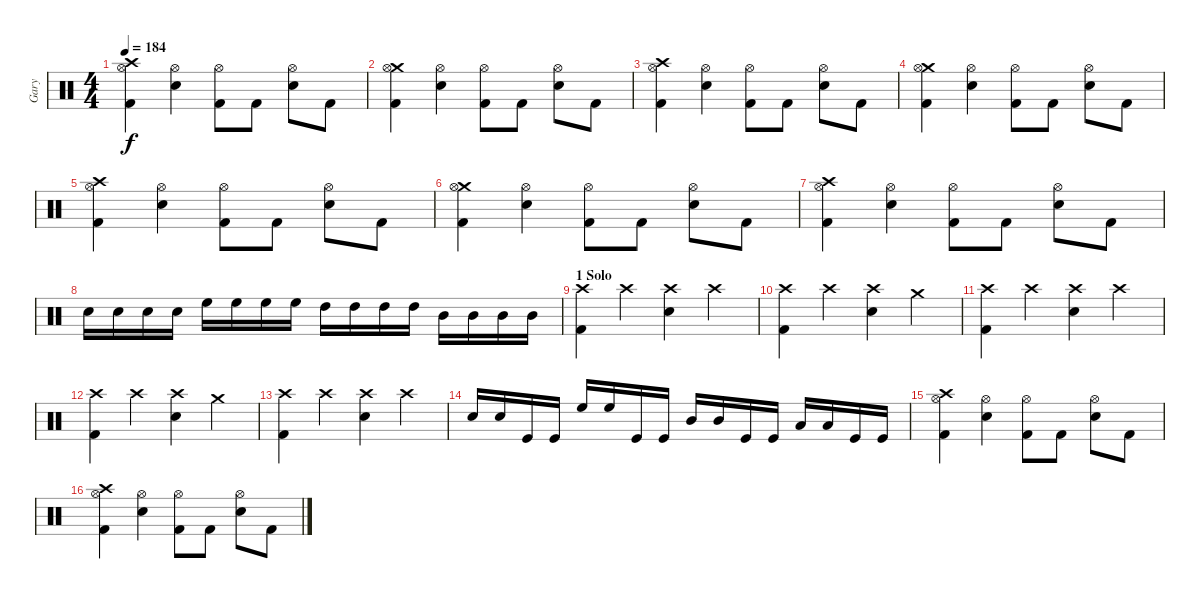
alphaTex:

\track ("Gary" "Gary") {instrument percussion}
\staff {score}
\articulation defaults
\ts (4 4)
\tempo 184
\clef neutral
\ks c
("Crash high (hit)" "Hi-Hat (open)" "Kick (hit) 2").4{dy f} ("Hi-Hat (open)" "Snare (hit) 2").4 ("Hi-Hat (open)" "Kick (hit) 2").8 "Kick (hit) 2".8 ("Hi-Hat (open)" "Snare (hit) 2").8 "Kick (hit) 2".8 |
("Crash medium (hit)" "Hi-Hat (open)" "Kick (hit) 2").4 ("Hi-Hat (open)" "Snare (hit) 2").4 ("Hi-Hat (open)" "Kick (hit) 2").8 "Kick (hit) 2".8 ("Hi-Hat (open)" "Snare (hit) 2").8 "Kick (hit) 2".8 |
("Crash high (hit)" "Hi-Hat (open)" "Kick (hit) 2").4 ("Hi-Hat (open)" "Snare (hit) 2").4 ("Hi-Hat (open)" "Kick (hit) 2").8 "Kick (hit) 2".8 ("Hi-Hat (open)" "Snare (hit) 2").8 "Kick (hit) 2".8 |
("Crash medium (hit)" "Hi-Hat (open)" "Kick (hit) 2").4 ("Hi-Hat (open)" "Snare (hit) 2").4 ("Hi-Hat (open)" "Kick (hit) 2").8 "Kick (hit) 2".8 ("Hi-Hat (open)" "Snare (hit) 2").8 "Kick (hit) 2".8 |
("Crash high (hit)" "Hi-Hat (open)" "Kick (hit) 2").4 ("Hi-Hat (open)" "Snare (hit) 2").4 ("Hi-Hat (open)" "Kick (hit) 2").8 "Kick (hit) 2".8 ("Hi-Hat (open)" "Snare (hit) 2").8 "Kick (hit) 2".8 |
("Crash medium (hit)" "Hi-Hat (open)" "Kick (hit) 2").4 ("Hi-Hat (open)" "Snare (hit) 2").4 ("Hi-Hat (open)" "Kick (hit) 2").8 "Kick (hit) 2".8 ("Hi-Hat (open)" "Snare (hit) 2").8 "Kick (hit) 2".8 |
("Crash high (hit)" "Hi-Hat (open)" "Kick (hit) 2").4 ("Hi-Hat (open)" "Snare (hit) 2").4 ("Hi-Hat (open)" "Kick (hit) 2").8 "Kick (hit) 2".8 ("Hi-Hat (open)" "Snare (hit) 2").8 "Kick (hit) 2".8 |
"Electric Snare (hit)".16 "Electric Snare (hit)".16 "Electric Snare (hit)".16 "Electric Snare (hit)".16 "High Floor Tom (hit)".16 "High Floor Tom (hit)".16 "High Floor Tom (hit)".16 "High Floor Tom (hit)".16 "High Tom (hit)".16 "High Tom (hit)".16 "High Tom (hit)".16 "High Tom (hit)".16 "Mid Tom (hit)".16 "Mid Tom (hit)".16 "Mid Tom (hit)".16 "Mid Tom (hit)".16 |
\section ("" "1 Solo")
("Crash high (hit)" "Kick (hit) 2").4 "Crash high (hit)".4 ("Crash high (hit)" "Snare (hit) 2").4 "Crash high (hit)".4 |
("Crash high (hit)" "Kick (hit) 2").4 "Crash high (hit)".4 ("Crash high (hit)" "Snare (hit) 2").4 "Crash medium (hit)".4 |
("Crash high (hit)" "Kick (hit) 2").4 "Crash high (hit)".4 ("Crash high (hit)" "Snare (hit) 2").4 "Crash high (hit)".4 |
("Crash high (hit)" "Kick (hit) 2").4 "Crash high (hit)".4 ("Crash high (hit)" "Snare (hit) 2").4 "Crash medium (hit)".4 |
("Crash high (hit)" "Kick (hit) 2").4 "Crash high (hit)".4 ("Crash high (hit)" "Snare (hit) 2").4 "Crash high (hit)".4 |
"Electric Snare (hit)".16 "Electric Snare (hit)".16 "Kick (hit)".16 "Kick (hit)".16 "High Floor Tom (hit)".16 "High Floor Tom (hit)".16 "Kick (hit)".16 "Kick (hit)".16 "Mid Tom (hit)".16 "Mid Tom (hit)".16 "Kick (hit)".16 "Kick (hit)".16 "Low Tom (hit)".16 "Low Tom (hit)".16 "Kick (hit)".16 "Kick (hit)".16 |
("Crash high (hit)" "Hi-Hat (open)" "Kick (hit) 2").4 ("Hi-Hat (open)" "Snare (hit) 2").4 ("Hi-Hat (open)" "Kick (hit) 2").8 "Kick (hit) 2".8 ("Hi-Hat (open)" "Snare (hit) 2").8 "Kick (hit) 2".8 |
("Crash high (hit)" "Hi-Hat (open)" "Kick (hit) 2").4 ("Hi-Hat (open)" "Snare (hit) 2").4 ("Hi-Hat (open)" "Kick (hit) 2").8 "Kick (hit) 2".8 ("Hi-Hat (open)" "Snare (hit) 2").8 "Kick (hit) 2".8
